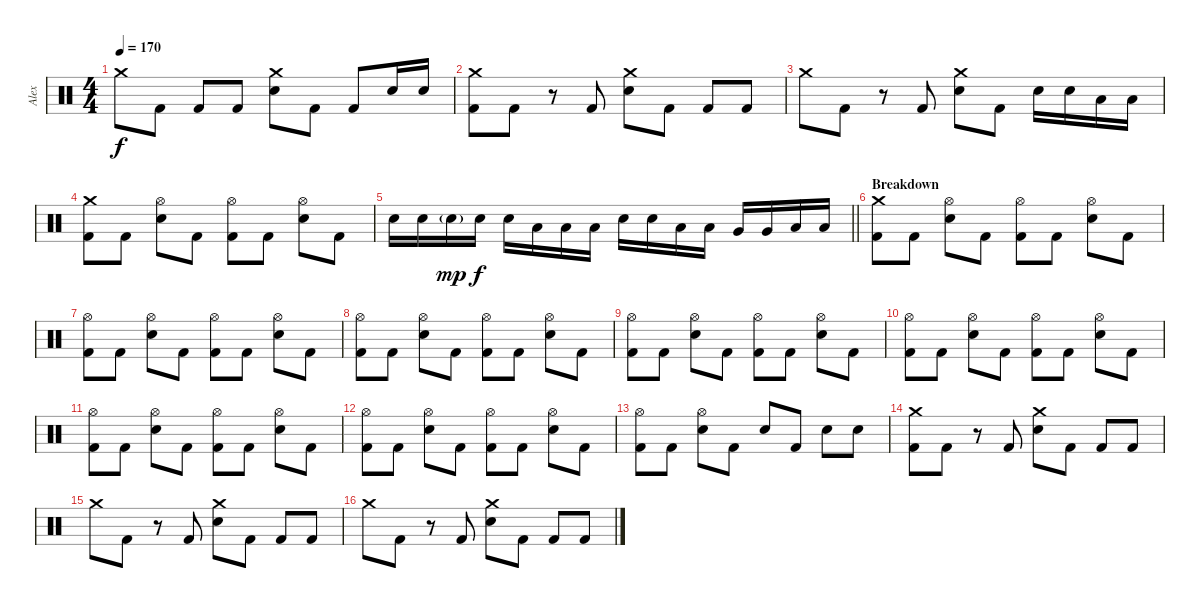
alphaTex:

\track ("Alex" "Alex") {instrument percussion}
\staff {score}
\articulation defaults
\ts (4 4)
\tempo 170
\clef neutral
\ks c "Crash medium (hit)".8{dy f} "Kick (hit) 2".8 "Kick (hit) 2".8 "Kick (hit) 2".8
("Crash medium (hit)" "Electric Snare (hit)").8 "Kick (hit) 2".8 "Kick (hit) 2".8 "Electric Snare (hit)".16 "Electric Snare (hit)".16 |
("Crash medium (hit)" "Kick (hit) 2").8 "Kick (hit) 2".8 r.8 "Kick (hit) 2".8 ("Crash medium (hit)" "Electric Snare (hit)").8 "Kick (hit) 2".8 "Kick (hit) 2".8 "Kick (hit) 2".8 |
"Crash medium (hit)".8 "Kick (hit) 2".8 r.8 "Kick (hit) 2".8 ("Crash medium (hit)" "Electric Snare (hit)").8 "Kick (hit) 2".8 "Electric Snare (hit)".16 "Electric Snare (hit)".16 "Low Tom (hit)".16 "Low Tom (hit)".16 |
("Crash medium (hit)" "Kick (hit) 2").8 "Kick (hit) 2".8 ("Hi-Hat (open)" "Electric Snare (hit)").8 "Kick (hit) 2".8 ("Hi-Hat (open)" "Kick (hit) 2").8 "Kick (hit) 2".8 ("Hi-Hat (open)" "Electric Snare (hit)").8 "Kick (hit) 2".8 |
\barLineRight lightlight "Electric Snare (hit)".16 "Electric Snare (hit)".16 "Electric Snare (hit)"{g}.16{dy mp} "Electric Snare (hit)".16{dy f} "Electric Snare (hit)".16 "Low Tom (hit)".16 "Low Tom (hit)".16 "Low Tom (hit)".16 "Electric Snare (hit)".16 "Electric Snare (hit)".16 "Low Tom (hit)".16 "Low Tom (hit)".16 "Very Low Tom (hit)".16 "Very Low Tom (hit)".16 "Low Floor Tom (hit)".16 "Low Floor Tom (hit)".16
|
\section ("" "Breakdown")
("Crash medium (hit)" "Kick (hit) 2").8 "Kick (hit) 2".8 ("Hi-Hat (open)" "Electric Snare (hit)").8 "Kick (hit) 2".8 ("Hi-Hat (open)" "Kick (hit) 2").8 "Kick (hit) 2".8 ("Hi-Hat (open)" "Electric Snare (hit)").8 "Kick (hit) 2".8 |
("Hi-Hat (open)" "Kick (hit) 2").8 "Kick (hit) 2".8 ("Hi-Hat (open)" "Electric Snare (hit)").8 "Kick (hit) 2".8 ("Hi-Hat (open)" "Kick (hit) 2").8 "Kick (hit) 2".8 ("Hi-Hat (open)" "Electric Snare (hit)").8 "Kick (hit) 2".8 |
("Hi-Hat (open)" "Kick (hit) 2").8 "Kick (hit) 2".8 ("Hi-Hat (open)" "Electric Snare (hit)").8 "Kick (hit) 2".8 ("Hi-Hat (open)" "Kick (hit) 2").8 "Kick (hit) 2".8 ("Hi-Hat (open)" "Electric Snare (hit)").8 "Kick (hit) 2".8 |
("Hi-Hat (open)" "Kick (hit) 2").8 "Kick (hit) 2".8 ("Hi-Hat (open)" "Electric Snare (hit)").8 "Kick (hit) 2".8 ("Hi-Hat (open)" "Kick (hit) 2").8 "Kick (hit) 2".8 ("Hi-Hat (open)" "Electric Snare (hit)").8 "Kick (hit) 2".8 |
("Hi-Hat (open)" "Kick (hit) 2").8 "Kick (hit) 2".8 ("Hi-Hat (open)" "Electric Snare (hit)").8 "Kick (hit) 2".8 ("Hi-Hat (open)" "Kick (hit) 2").8 "Kick (hit) 2".8 ("Hi-Hat (open)" "Electric Snare (hit)").8 "Kick (hit) 2".8 |
("Hi-Hat (open)" "Kick (hit) 2").8 "Kick (hit) 2".8 ("Hi-Hat (open)" "Electric Snare (hit)").8 "Kick (hit) 2".8 ("Hi-Hat (open)" "Kick (hit) 2").8 "Kick (hit) 2".8 ("Hi-Hat (open)" "Electric Snare (hit)").8 "Kick (hit) 2".8 |
("Hi-Hat (open)" "Kick (hit) 2").8 "Kick (hit) 2".8 ("Hi-Hat (open)" "Electric Snare (hit)").8 "Kick (hit) 2".8 ("Hi-Hat (open)" "Kick (hit) 2").8 "Kick (hit) 2".8 ("Hi-Hat (open)" "Electric Snare (hit)").8 "Kick (hit) 2".8 |
("Hi-Hat (open)" "Kick (hit) 2").8 "Kick (hit) 2".8 ("Hi-Hat (open)" "Electric Snare (hit)").8 "Kick (hit) 2".8 "Electric Snare (hit)".8 "Kick (hit) 2".8 "Electric Snare (hit)".8 "Electric Snare (hit)".8 |
("Crash medium (hit)" "Kick (hit) 2").8 "Kick (hit) 2".8 r.8 "Kick (hit) 2".8 ("Crash medium (hit)" "Electric Snare (hit)").8 "Kick (hit) 2".8 "Kick (hit) 2".8 "Kick (hit) 2".8 |
"Crash medium (hit)".8 "Kick (hit) 2".8 r.8 "Kick (hit) 2".8 ("Crash medium (hit)" "Electric Snare (hit)").8 "Kick (hit) 2".8 "Kick (hit) 2".8 "Kick (hit) 2".8 |
"Crash medium (hit)".8 "Kick (hit) 2".8 r.8 "Kick (hit) 2".8 ("Crash medium (hit)" "Electric Snare (hit)").8 "Kick (hit) 2".8 "Kick (hit) 2".8 "Kick (hit) 2".8
